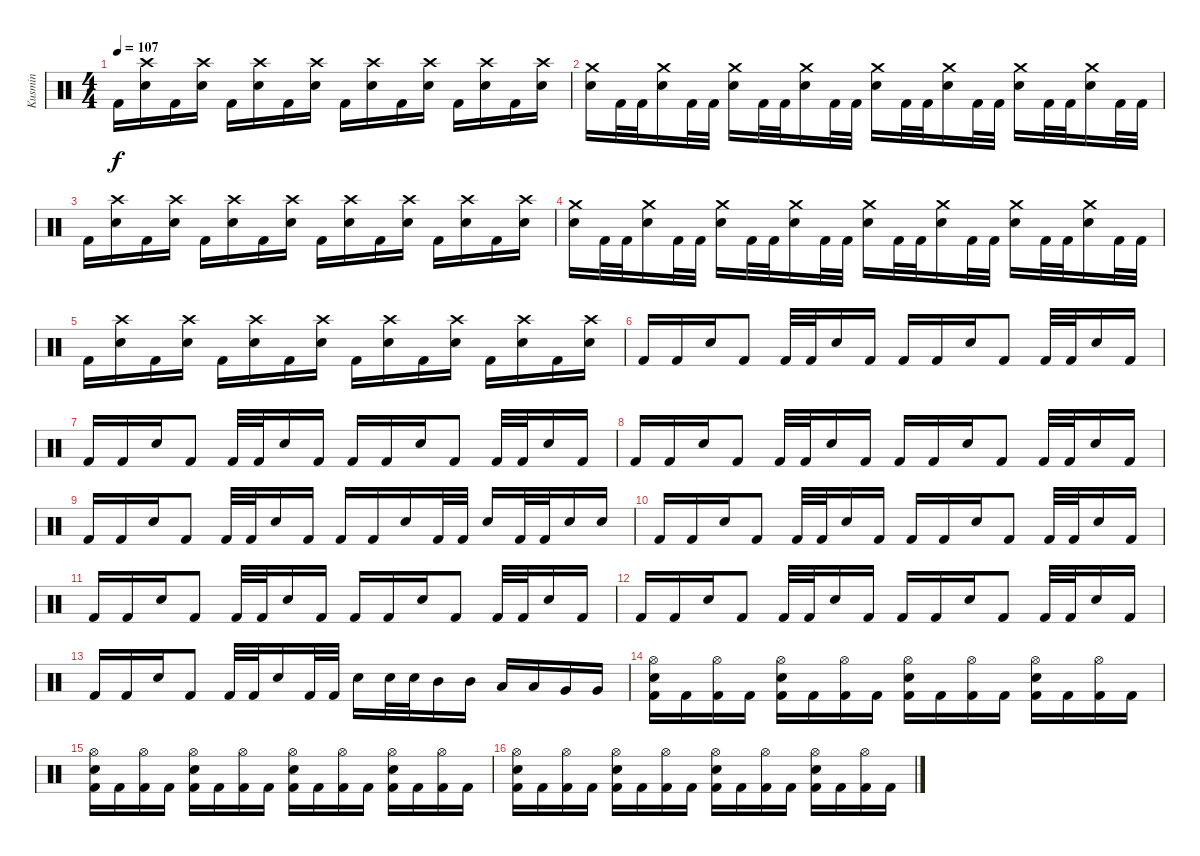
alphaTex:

\track ("Kusmin" "Kusmin") {instrument percussion}
\staff {score}
\articulation defaults
\ts (4 4)
\tempo 107
\clef neutral
\ks c "Kick (hit) 2".16{dy f}
("Crash high (hit)" "Snare (hit) 2").16 "Kick (hit) 2".16 ("Crash high (hit)" "Snare (hit) 2").16 "Kick (hit) 2".16 ("Crash high (hit)" "Snare (hit) 2").16 "Kick (hit) 2".16 ("Crash high (hit)" "Snare (hit) 2").16 "Kick (hit) 2".16 ("Crash high (hit)" "Snare (hit) 2").16 "Kick (hit) 2".16 ("Crash high (hit)" "Snare (hit) 2").16 "Kick (hit) 2".16 ("Crash high (hit)" "Snare (hit) 2").16 "Kick (hit) 2".16 ("Crash high (hit)" "Snare (hit) 2").16 |
("Crash medium (hit)" "Snare (hit) 2").16 "Kick (hit) 2".32 "Kick (hit) 2".32 ("Crash medium (hit)" "Snare (hit) 2").16 "Kick (hit) 2".32 "Kick (hit) 2".32 ("Crash medium (hit)" "Snare (hit) 2").16 "Kick (hit) 2".32 "Kick (hit) 2".32 ("Crash medium (hit)" "Snare (hit) 2").16 "Kick (hit) 2".32 "Kick (hit) 2".32 ("Crash medium (hit)" "Snare (hit) 2").16 "Kick (hit) 2".32 "Kick (hit) 2".32 ("Crash medium (hit)" "Snare (hit) 2").16 "Kick (hit) 2".32 "Kick (hit) 2".32 ("Crash medium (hit)" "Snare (hit) 2").16 "Kick (hit) 2".32 "Kick (hit) 2".32 ("Crash medium (hit)" "Snare (hit) 2").16 "Kick (hit) 2".32 "Kick (hit) 2".32 |
"Kick (hit) 2".16 ("Crash high (hit)" "Snare (hit) 2").16 "Kick (hit) 2".16 ("Crash high (hit)" "Snare (hit) 2").16 "Kick (hit) 2".16 ("Crash high (hit)" "Snare (hit) 2").16 "Kick (hit) 2".16 ("Crash high (hit)" "Snare (hit) 2").16 "Kick (hit) 2".16 ("Crash high (hit)" "Snare (hit) 2").16 "Kick (hit) 2".16 ("Crash high (hit)" "Snare (hit) 2").16 "Kick (hit) 2".16 ("Crash high (hit)" "Snare (hit) 2").16 "Kick (hit) 2".16 ("Crash high (hit)" "Snare (hit) 2").16 |
("Crash medium (hit)" "Snare (hit) 2").16 "Kick (hit) 2".32 "Kick (hit) 2".32 ("Crash medium (hit)" "Snare (hit) 2").16 "Kick (hit) 2".32 "Kick (hit) 2".32 ("Crash medium (hit)" "Snare (hit) 2").16 "Kick (hit) 2".32 "Kick (hit) 2".32 ("Crash medium (hit)" "Snare (hit) 2").16 "Kick (hit) 2".32 "Kick (hit) 2".32 ("Crash medium (hit)" "Snare (hit) 2").16 "Kick (hit) 2".32 "Kick (hit) 2".32 ("Crash medium (hit)" "Snare (hit) 2").16 "Kick (hit) 2".32 "Kick (hit) 2".32 ("Crash medium (hit)" "Snare (hit) 2").16 "Kick (hit) 2".32 "Kick (hit) 2".32 ("Crash medium (hit)" "Snare (hit) 2").16 "Kick (hit) 2".32 "Kick (hit) 2".32 |
"Kick (hit) 2".16 ("Crash high (hit)" "Snare (hit) 2").16 "Kick (hit) 2".16 ("Crash high (hit)" "Snare (hit) 2").16 "Kick (hit) 2".16 ("Crash high (hit)" "Snare (hit) 2").16 "Kick (hit) 2".16 ("Crash high (hit)" "Snare (hit) 2").16 "Kick (hit) 2".16 ("Crash high (hit)" "Snare (hit) 2").16 "Kick (hit) 2".16 ("Crash high (hit)" "Snare (hit) 2").16 "Kick (hit) 2".16 ("Crash high (hit)" "Snare (hit) 2").16 "Kick (hit) 2".16 ("Crash high (hit)" "Snare (hit) 2").16 |
"Kick (hit) 2".16 "Kick (hit) 2".16 "Snare (hit) 2".16 "Kick (hit) 2".8 "Kick (hit) 2".32 "Kick (hit) 2".32 "Snare (hit) 2".16 "Kick (hit) 2".16 "Kick (hit) 2".16 "Kick (hit) 2".16 "Snare (hit) 2".16 "Kick (hit) 2".8 "Kick (hit) 2".32 "Kick (hit) 2".32 "Snare (hit) 2".16 "Kick (hit) 2".16 |
"Kick (hit) 2".16 "Kick (hit) 2".16 "Snare (hit) 2".16 "Kick (hit) 2".8 "Kick (hit) 2".32 "Kick (hit) 2".32 "Snare (hit) 2".16 "Kick (hit) 2".16 "Kick (hit) 2".16 "Kick (hit) 2".16 "Snare (hit) 2".16 "Kick (hit) 2".8 "Kick (hit) 2".32 "Kick (hit) 2".32 "Snare (hit) 2".16 "Kick (hit) 2".16 |
"Kick (hit) 2".16 "Kick (hit) 2".16 "Snare (hit) 2".16 "Kick (hit) 2".8 "Kick (hit) 2".32 "Kick (hit) 2".32 "Snare (hit) 2".16 "Kick (hit) 2".16 "Kick (hit) 2".16 "Kick (hit) 2".16 "Snare (hit) 2".16 "Kick (hit) 2".8 "Kick (hit) 2".32 "Kick (hit) 2".32 "Snare (hit) 2".16 "Kick (hit) 2".16 |
"Kick (hit) 2".16 "Kick (hit) 2".16 "Snare (hit) 2".16 "Kick (hit) 2".8 "Kick (hit) 2".32 "Kick (hit) 2".32 "Snare (hit) 2".16 "Kick (hit) 2".16 "Kick (hit) 2".16 "Kick (hit) 2".16 "Snare (hit) 2".16 "Kick (hit) 2".32 "Kick (hit) 2".32 "Snare (hit) 2".16 "Kick (hit) 2".32 "Kick (hit) 2".32 "Snare (hit) 2".16 "Snare (hit) 2".16 |
"Kick (hit) 2".16 "Kick (hit) 2".16 "Snare (hit) 2".16 "Kick (hit) 2".8 "Kick (hit) 2".32 "Kick (hit) 2".32 "Snare (hit) 2".16 "Kick (hit) 2".16 "Kick (hit) 2".16 "Kick (hit) 2".16 "Snare (hit) 2".16 "Kick (hit) 2".8 "Kick (hit) 2".32 "Kick (hit) 2".32 "Snare (hit) 2".16 "Kick (hit) 2".16 |
"Kick (hit) 2".16 "Kick (hit) 2".16 "Snare (hit) 2".16 "Kick (hit) 2".8 "Kick (hit) 2".32 "Kick (hit) 2".32 "Snare (hit) 2".16 "Kick (hit) 2".16 "Kick (hit) 2".16 "Kick (hit) 2".16 "Snare (hit) 2".16 "Kick (hit) 2".8 "Kick (hit) 2".32 "Kick (hit) 2".32 "Snare (hit) 2".16 "Kick (hit) 2".16 |
"Kick (hit) 2".16 "Kick (hit) 2".16 "Snare (hit) 2".16 "Kick (hit) 2".8 "Kick (hit) 2".32 "Kick (hit) 2".32 "Snare (hit) 2".16 "Kick (hit) 2".16 "Kick (hit) 2".16 "Kick (hit) 2".16 "Snare (hit) 2".16 "Kick (hit) 2".8 "Kick (hit) 2".32 "Kick (hit) 2".32 "Snare (hit) 2".16 "Kick (hit) 2".16 |
"Kick (hit) 2".16 "Kick (hit) 2".16 "Snare (hit) 2".16 "Kick (hit) 2".8 "Kick (hit) 2".32 "Kick (hit) 2".32 "Snare (hit) 2".16 "Kick (hit) 2".32 "Kick (hit) 2".32 "Snare (hit) 2".16 "Snare (hit) 2".32 "Snare (hit) 2".32 "Mid Tom (hit)".16 "Mid Tom (hit)".16 "Low Tom (hit)".16 "Low Tom (hit)".16 "Very Low Tom (hit)".16 "Very Low Tom (hit)".16 |
("Hi-Hat (open)" "Snare (hit) 2" "Kick (hit) 2").16 "Kick (hit) 2".16 ("Hi-Hat (open)" "Kick (hit) 2").16 "Kick (hit) 2".16 ("Hi-Hat (open)" "Snare (hit) 2" "Kick (hit) 2").16 "Kick (hit) 2".16 ("Hi-Hat (open)" "Kick (hit) 2").16 "Kick (hit) 2".16 ("Hi-Hat (open)" "Snare (hit) 2" "Kick (hit) 2").16 "Kick (hit) 2".16 ("Hi-Hat (open)" "Kick (hit) 2").16 "Kick (hit) 2".16 ("Hi-Hat (open)" "Snare (hit) 2" "Kick (hit) 2").16 "Kick (hit) 2".16 ("Hi-Hat (open)" "Kick (hit) 2").16 "Kick (hit) 2".16 |
("Hi-Hat (open)" "Snare (hit) 2" "Kick (hit) 2").16 "Kick (hit) 2".16 ("Hi-Hat (open)" "Kick (hit) 2").16 "Kick (hit) 2".16 ("Hi-Hat (open)" "Snare (hit) 2" "Kick (hit) 2").16 "Kick (hit) 2".16 ("Hi-Hat (open)" "Kick (hit) 2").16 "Kick (hit) 2".16 ("Hi-Hat (open)" "Snare (hit) 2" "Kick (hit) 2").16 "Kick (hit) 2".16 ("Hi-Hat (open)" "Kick (hit) 2").16 "Kick (hit) 2".16 ("Hi-Hat (open)" "Snare (hit) 2" "Kick (hit) 2").16 "Kick (hit) 2".16 ("Hi-Hat (open)" "Kick (hit) 2").16 "Kick (hit) 2".16 |
("Hi-Hat (open)" "Snare (hit) 2" "Kick (hit) 2").16 "Kick (hit) 2".16 ("Hi-Hat (open)" "Kick (hit) 2").16 "Kick (hit) 2".16 ("Hi-Hat (open)" "Snare (hit) 2" "Kick (hit) 2").16 "Kick (hit) 2".16 ("Hi-Hat (open)" "Kick (hit) 2").16 "Kick (hit) 2".16 ("Hi-Hat (open)" "Snare (hit) 2" "Kick (hit) 2").16 "Kick (hit) 2".16 ("Hi-Hat (open)" "Kick (hit) 2").16 "Kick (hit) 2".16 ("Hi-Hat (open)" "Snare (hit) 2" "Kick (hit) 2").16 "Kick (hit) 2".16 ("Hi-Hat (open)" "Kick (hit) 2").16 "Kick (hit) 2".16
